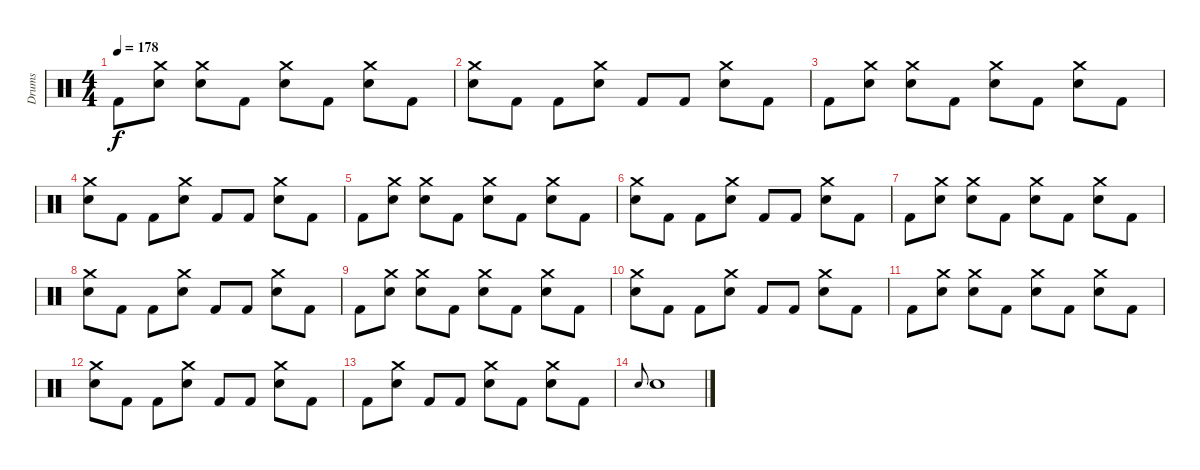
\track ("Drums" "Drums") {instrument percussion}
\staff {score}
\articulation defaults
\ts (4 4)
\tempo 178
\clef neutral
\ks c "Kick (hit) 2".8{dy f}
("Crash medium (hit)" "Electric Snare (hit)").8 ("Crash medium (hit)" "Electric Snare (hit)").8 "Kick (hit) 2".8 ("Crash medium (hit)" "Electric Snare (hit)").8 "Kick (hit) 2".8 ("Crash medium (hit)" "Electric Snare (hit)").8 "Kick (hit) 2".8 |
("Crash medium (hit)" "Electric Snare (hit)").8 "Kick (hit) 2".8 "Kick (hit) 2".8 ("Crash medium (hit)" "Electric Snare (hit)").8 "Kick (hit) 2".8 "Kick (hit) 2".8 ("Crash medium (hit)" "Electric Snare (hit)").8 "Kick (hit) 2".8 |
"Kick (hit) 2".8 ("Crash medium (hit)" "Electric Snare (hit)").8 ("Crash medium (hit)" "Electric Snare (hit)").8 "Kick (hit) 2".8 ("Crash medium (hit)" "Electric Snare (hit)").8 "Kick (hit) 2".8 ("Crash medium (hit)" "Electric Snare (hit)").8 "Kick (hit) 2".8 |
("Crash medium (hit)" "Electric Snare (hit)").8 "Kick (hit) 2".8 "Kick (hit) 2".8 ("Crash medium (hit)" "Electric Snare (hit)").8 "Kick (hit) 2".8 "Kick (hit) 2".8 ("Crash medium (hit)" "Electric Snare (hit)").8 "Kick (hit) 2".8 |
"Kick (hit) 2".8 ("Crash medium (hit)" "Electric Snare (hit)").8 ("Crash medium (hit)" "Electric Snare (hit)").8 "Kick (hit) 2".8 ("Crash medium (hit)" "Electric Snare (hit)").8 "Kick (hit) 2".8 ("Crash medium (hit)" "Electric Snare (hit)").8 "Kick (hit) 2".8 |
("Crash medium (hit)" "Electric Snare (hit)").8 "Kick (hit) 2".8 "Kick (hit) 2".8 ("Crash medium (hit)" "Electric Snare (hit)").8 "Kick (hit) 2".8 "Kick (hit) 2".8 ("Crash medium (hit)" "Electric Snare (hit)").8 "Kick (hit) 2".8 |
"Kick (hit) 2".8 ("Crash medium (hit)" "Electric Snare (hit)").8 ("Crash medium (hit)" "Electric Snare (hit)").8 "Kick (hit) 2".8 ("Crash medium (hit)" "Electric Snare (hit)").8 "Kick (hit) 2".8 ("Crash medium (hit)" "Electric Snare (hit)").8 "Kick (hit) 2".8 |
("Crash medium (hit)" "Electric Snare (hit)").8 "Kick (hit) 2".8 "Kick (hit) 2".8 ("Crash medium (hit)" "Electric Snare (hit)").8 "Kick (hit) 2".8 "Kick (hit) 2".8 ("Crash medium (hit)" "Electric Snare (hit)").8 "Kick (hit) 2".8 |
"Kick (hit) 2".8 ("Crash medium (hit)" "Electric Snare (hit)").8 ("Crash medium (hit)" "Electric Snare (hit)").8 "Kick (hit) 2".8 ("Crash medium (hit)" "Electric Snare (hit)").8 "Kick (hit) 2".8 ("Crash medium (hit)" "Electric Snare (hit)").8 "Kick (hit) 2".8 |
("Crash medium (hit)" "Electric Snare (hit)").8 "Kick (hit) 2".8 "Kick (hit) 2".8 ("Crash medium (hit)" "Electric Snare (hit)").8 "Kick (hit) 2".8 "Kick (hit) 2".8 ("Crash medium (hit)" "Electric Snare (hit)").8 "Kick (hit) 2".8 |
"Kick (hit) 2".8 ("Crash medium (hit)" "Electric Snare (hit)").8 ("Crash medium (hit)" "Electric Snare (hit)").8 "Kick (hit) 2".8 ("Crash medium (hit)" "Electric Snare (hit)").8 "Kick (hit) 2".8 ("Crash medium (hit)" "Electric Snare (hit)").8 "Kick (hit) 2".8 |
("Crash medium (hit)" "Electric Snare (hit)").8 "Kick (hit) 2".8 "Kick (hit) 2".8 ("Crash medium (hit)" "Electric Snare (hit)").8 "Kick (hit) 2".8 "Kick (hit) 2".8 ("Crash medium (hit)" "Electric Snare (hit)").8 "Kick (hit) 2".8 |
"Kick (hit) 2".8 ("Crash medium (hit)" "Electric Snare (hit)").8 "Kick (hit) 2".8 "Kick (hit) 2".8 ("Crash medium (hit)" "Electric Snare (hit)").8 "Kick (hit) 2".8 ("Crash medium (hit)" "Electric Snare (hit)").8 "Kick (hit) 2".8 |
"Electric Snare (hit)".8{gr onbeat} "Electric Snare (hit)".1
